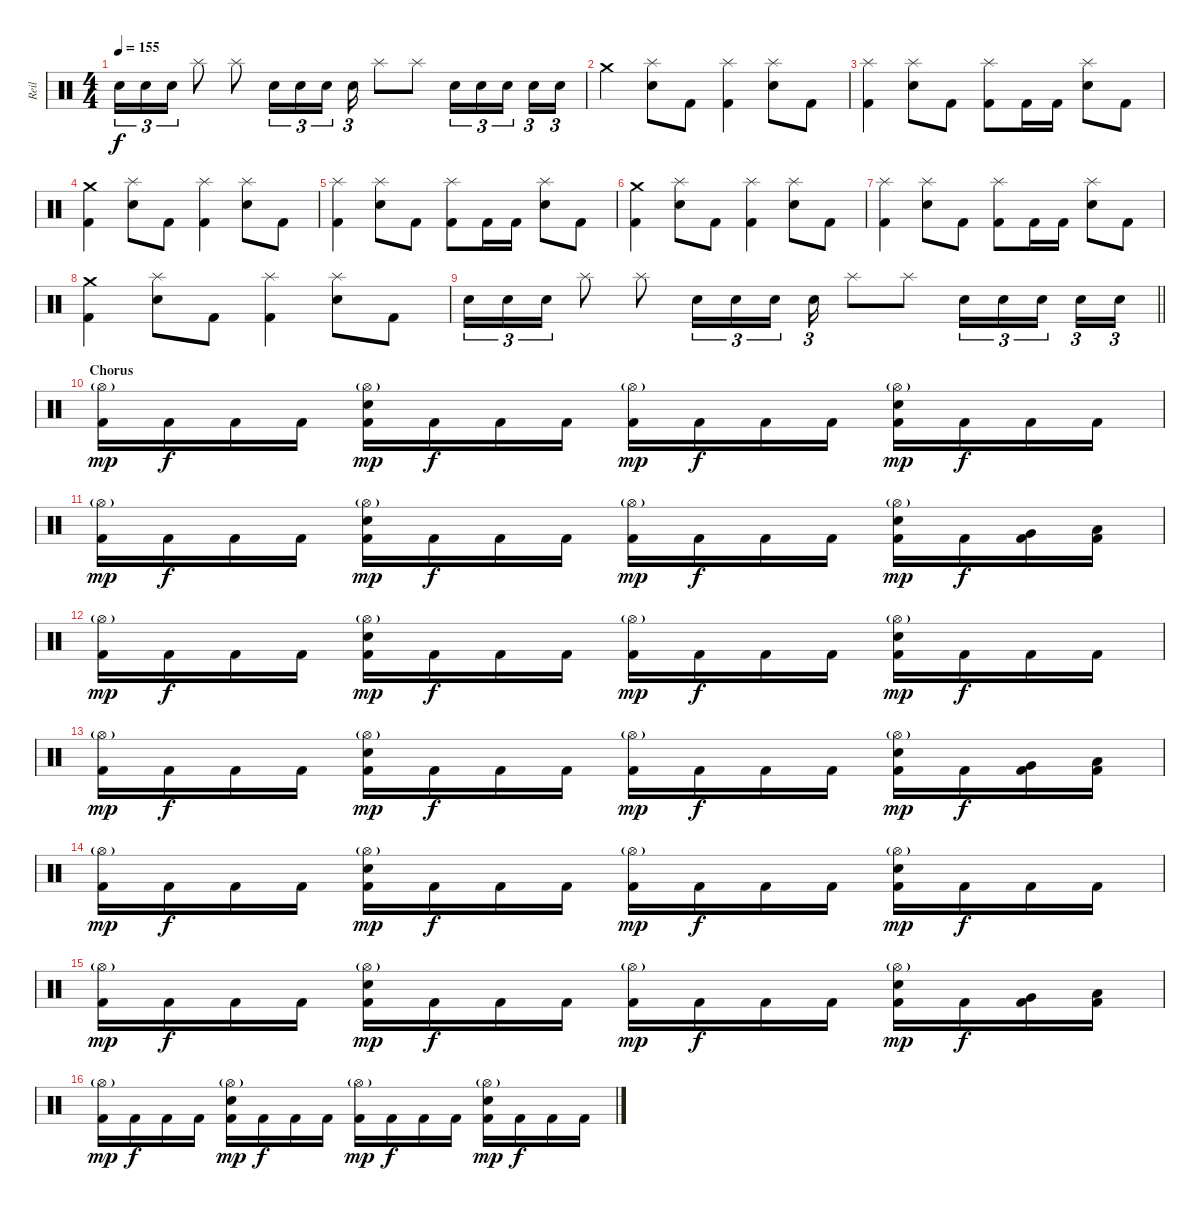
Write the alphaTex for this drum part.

\track ("Reil" "Reil") {instrument percussion}
\staff {score}
\articulation defaults
\ts (4 4)
\tempo 155
\clef neutral
\ks c "Electric Snare (hit)".16{tu (3 2) dy f} "Electric Snare (hit)".16{tu (3 2)} "Electric Snare (hit)".16{tu (3 2)} "Splash (hit)".8 "Splash (hit)".8 "Electric Snare (hit)".16{tu (3 2)} "Electric Snare (hit)".16{tu (3 2)} "Electric Snare (hit)".16{tu (3 2)} "Electric Snare (hit)".16{tu (3 2)} "Splash (hit)".8 "Splash (hit)".8 "Electric Snare (hit)".16{tu (3 2)} "Electric Snare (hit)".16{tu (3 2)} "Electric Snare (hit)".16{tu (3 2) beam splitsecondary} "Electric Snare (hit)".16{tu (3 2)} "Electric Snare (hit)".16{tu (3 2)}
|
"Crash medium (hit)".4 ("Splash (hit)" "Electric Snare (hit)").8 "Kick (hit) 2".8 ("Splash (hit)" "Kick (hit) 2").4 ("Splash (hit)" "Electric Snare (hit)").8 "Kick (hit) 2".8 |
("Splash (hit)" "Kick (hit) 2").4 ("Splash (hit)" "Electric Snare (hit)").8 "Kick (hit) 2".8 ("Splash (hit)" "Kick (hit) 2").8 "Kick (hit) 2".16 "Kick (hit) 2".16 ("Splash (hit)" "Electric Snare (hit)").8 "Kick (hit) 2".8 |
("Crash medium (hit)" "Kick (hit) 2").4 ("Splash (hit)" "Electric Snare (hit)").8 "Kick (hit) 2".8 ("Splash (hit)" "Kick (hit) 2").4 ("Splash (hit)" "Electric Snare (hit)").8 "Kick (hit) 2".8 |
("Splash (hit)" "Kick (hit) 2").4 ("Splash (hit)" "Electric Snare (hit)").8 "Kick (hit) 2".8 ("Splash (hit)" "Kick (hit) 2").8 "Kick (hit) 2".16 "Kick (hit) 2".16 ("Splash (hit)" "Electric Snare (hit)").8 "Kick (hit) 2".8 |
("Crash medium (hit)" "Kick (hit) 2").4 ("Splash (hit)" "Electric Snare (hit)").8 "Kick (hit) 2".8 ("Splash (hit)" "Kick (hit) 2").4 ("Splash (hit)" "Electric Snare (hit)").8 "Kick (hit) 2".8 |
("Splash (hit)" "Kick (hit) 2").4 ("Splash (hit)" "Electric Snare (hit)").8 "Kick (hit) 2".8 ("Splash (hit)" "Kick (hit) 2").8 "Kick (hit) 2".16 "Kick (hit) 2".16 ("Splash (hit)" "Electric Snare (hit)").8 "Kick (hit) 2".8 |
("Crash medium (hit)" "Kick (hit) 2").4 ("Splash (hit)" "Electric Snare (hit)").8 "Kick (hit) 2".8 ("Splash (hit)" "Kick (hit) 2").4 ("Splash (hit)" "Electric Snare (hit)").8 "Kick (hit) 2".8 |
\barLineRight lightlight "Electric Snare (hit)".16{tu (3 2)} "Electric Snare (hit)".16{tu (3 2)} "Electric Snare (hit)".16{tu (3 2)} "Splash (hit)".8 "Splash (hit)".8 "Electric Snare (hit)".16{tu (3 2)} "Electric Snare (hit)".16{tu (3 2)} "Electric Snare (hit)".16{tu (3 2)} "Electric Snare (hit)".16{tu (3 2)} "Splash (hit)".8 "Splash (hit)".8 "Electric Snare (hit)".16{tu (3 2)} "Electric Snare (hit)".16{tu (3 2)} "Electric Snare (hit)".16{tu (3 2) beam splitsecondary} "Electric Snare (hit)".16{tu (3 2)} "Electric Snare (hit)".16{tu (3 2)}
|
\section ("" "Chorus")
("Hi-Hat (open)"{g} "Kick (hit) 2").16{dy mp} "Kick (hit) 2".16{dy f} "Kick (hit) 2".16 "Kick (hit) 2".16 ("Hi-Hat (open)"{g} "Electric Snare (hit)" "Kick (hit) 2").16{dy mp} "Kick (hit) 2".16{dy f} "Kick (hit) 2".16 "Kick (hit) 2".16 ("Hi-Hat (open)"{g} "Kick (hit) 2").16{dy mp} "Kick (hit) 2".16{dy f} "Kick (hit) 2".16 "Kick (hit) 2".16 ("Hi-Hat (open)"{g} "Electric Snare (hit)" "Kick (hit) 2").16{dy mp} "Kick (hit) 2".16{dy f} "Kick (hit) 2".16 "Kick (hit) 2".16 |
("Hi-Hat (open)"{g} "Kick (hit) 2").16{dy mp} "Kick (hit) 2".16{dy f} "Kick (hit) 2".16 "Kick (hit) 2".16 ("Hi-Hat (open)"{g} "Electric Snare (hit)" "Kick (hit) 2").16{dy mp} "Kick (hit) 2".16{dy f} "Kick (hit) 2".16 "Kick (hit) 2".16 ("Hi-Hat (open)"{g} "Kick (hit) 2").16{dy mp} "Kick (hit) 2".16{dy f} "Kick (hit) 2".16 "Kick (hit) 2".16 ("Hi-Hat (open)"{g} "Electric Snare (hit)" "Kick (hit) 2").16{dy mp} "Kick (hit) 2".16{dy f} ("Very Low Tom (hit)" "Kick (hit) 2").16 ("Low Floor Tom (hit)" "Kick (hit) 2").16 |
("Hi-Hat (open)"{g} "Kick (hit) 2").16{dy mp} "Kick (hit) 2".16{dy f} "Kick (hit) 2".16 "Kick (hit) 2".16 ("Hi-Hat (open)"{g} "Electric Snare (hit)" "Kick (hit) 2").16{dy mp} "Kick (hit) 2".16{dy f} "Kick (hit) 2".16 "Kick (hit) 2".16 ("Hi-Hat (open)"{g} "Kick (hit) 2").16{dy mp} "Kick (hit) 2".16{dy f} "Kick (hit) 2".16 "Kick (hit) 2".16 ("Hi-Hat (open)"{g} "Electric Snare (hit)" "Kick (hit) 2").16{dy mp} "Kick (hit) 2".16{dy f} "Kick (hit) 2".16 "Kick (hit) 2".16 |
("Hi-Hat (open)"{g} "Kick (hit) 2").16{dy mp} "Kick (hit) 2".16{dy f} "Kick (hit) 2".16 "Kick (hit) 2".16 ("Hi-Hat (open)"{g} "Electric Snare (hit)" "Kick (hit) 2").16{dy mp} "Kick (hit) 2".16{dy f} "Kick (hit) 2".16 "Kick (hit) 2".16 ("Hi-Hat (open)"{g} "Kick (hit) 2").16{dy mp} "Kick (hit) 2".16{dy f} "Kick (hit) 2".16 "Kick (hit) 2".16 ("Hi-Hat (open)"{g} "Electric Snare (hit)" "Kick (hit) 2").16{dy mp} "Kick (hit) 2".16{dy f} ("Very Low Tom (hit)" "Kick (hit) 2").16 ("Low Floor Tom (hit)" "Kick (hit) 2").16 |
("Hi-Hat (open)"{g} "Kick (hit) 2").16{dy mp} "Kick (hit) 2".16{dy f} "Kick (hit) 2".16 "Kick (hit) 2".16 ("Hi-Hat (open)"{g} "Electric Snare (hit)" "Kick (hit) 2").16{dy mp} "Kick (hit) 2".16{dy f} "Kick (hit) 2".16 "Kick (hit) 2".16 ("Hi-Hat (open)"{g} "Kick (hit) 2").16{dy mp} "Kick (hit) 2".16{dy f} "Kick (hit) 2".16 "Kick (hit) 2".16 ("Hi-Hat (open)"{g} "Electric Snare (hit)" "Kick (hit) 2").16{dy mp} "Kick (hit) 2".16{dy f} "Kick (hit) 2".16 "Kick (hit) 2".16 |
("Hi-Hat (open)"{g} "Kick (hit) 2").16{dy mp} "Kick (hit) 2".16{dy f} "Kick (hit) 2".16 "Kick (hit) 2".16 ("Hi-Hat (open)"{g} "Electric Snare (hit)" "Kick (hit) 2").16{dy mp} "Kick (hit) 2".16{dy f} "Kick (hit) 2".16 "Kick (hit) 2".16 ("Hi-Hat (open)"{g} "Kick (hit) 2").16{dy mp} "Kick (hit) 2".16{dy f} "Kick (hit) 2".16 "Kick (hit) 2".16 ("Hi-Hat (open)"{g} "Electric Snare (hit)" "Kick (hit) 2").16{dy mp} "Kick (hit) 2".16{dy f} ("Very Low Tom (hit)" "Kick (hit) 2").16 ("Low Floor Tom (hit)" "Kick (hit) 2").16 |
("Hi-Hat (open)"{g} "Kick (hit) 2").16{dy mp} "Kick (hit) 2".16{dy f} "Kick (hit) 2".16 "Kick (hit) 2".16 ("Hi-Hat (open)"{g} "Electric Snare (hit)" "Kick (hit) 2").16{dy mp} "Kick (hit) 2".16{dy f} "Kick (hit) 2".16 "Kick (hit) 2".16 ("Hi-Hat (open)"{g} "Kick (hit) 2").16{dy mp} "Kick (hit) 2".16{dy f} "Kick (hit) 2".16 "Kick (hit) 2".16 ("Hi-Hat (open)"{g} "Electric Snare (hit)" "Kick (hit) 2").16{dy mp} "Kick (hit) 2".16{dy f} "Kick (hit) 2".16 "Kick (hit) 2".16
